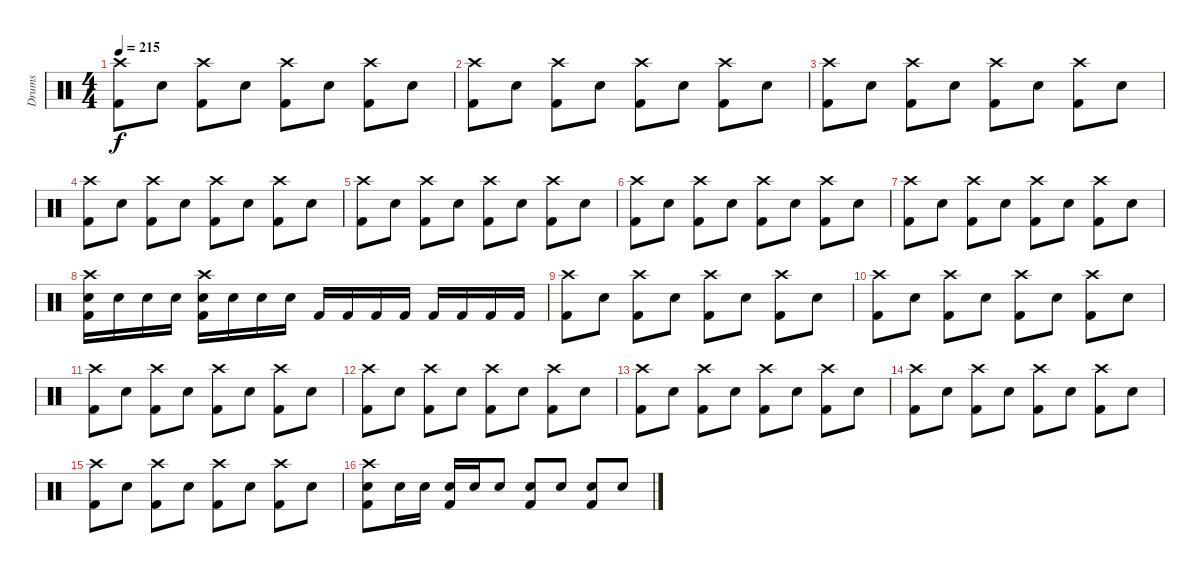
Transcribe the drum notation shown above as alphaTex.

\track ("Drums" "Drums") {instrument percussion}
\staff {score}
\articulation defaults
\ts (4 4)
\tempo 215
\clef neutral
\ks c
("Crash high (hit)" "Kick (hit) 2").8{dy f} "Electric Snare (hit)".8 ("Crash high (hit)" "Kick (hit) 2").8 "Electric Snare (hit)".8 ("Crash high (hit)" "Kick (hit) 2").8 "Electric Snare (hit)".8 ("Crash high (hit)" "Kick (hit) 2").8 "Electric Snare (hit)".8 |
("Crash high (hit)" "Kick (hit) 2").8 "Electric Snare (hit)".8 ("Crash high (hit)" "Kick (hit) 2").8 "Electric Snare (hit)".8 ("Crash high (hit)" "Kick (hit) 2").8 "Electric Snare (hit)".8 ("Crash high (hit)" "Kick (hit) 2").8 "Electric Snare (hit)".8 |
("Crash high (hit)" "Kick (hit) 2").8 "Electric Snare (hit)".8 ("Crash high (hit)" "Kick (hit) 2").8 "Electric Snare (hit)".8 ("Crash high (hit)" "Kick (hit) 2").8 "Electric Snare (hit)".8 ("Crash high (hit)" "Kick (hit) 2").8 "Electric Snare (hit)".8 |
("Crash high (hit)" "Kick (hit) 2").8 "Electric Snare (hit)".8 ("Crash high (hit)" "Kick (hit) 2").8 "Electric Snare (hit)".8 ("Crash high (hit)" "Kick (hit) 2").8 "Electric Snare (hit)".8 ("Crash high (hit)" "Kick (hit) 2").8 "Electric Snare (hit)".8 |
("Crash high (hit)" "Kick (hit) 2").8 "Electric Snare (hit)".8 ("Crash high (hit)" "Kick (hit) 2").8 "Electric Snare (hit)".8 ("Crash high (hit)" "Kick (hit) 2").8 "Electric Snare (hit)".8 ("Crash high (hit)" "Kick (hit) 2").8 "Electric Snare (hit)".8 |
("Crash high (hit)" "Kick (hit) 2").8 "Electric Snare (hit)".8 ("Crash high (hit)" "Kick (hit) 2").8 "Electric Snare (hit)".8 ("Crash high (hit)" "Kick (hit) 2").8 "Electric Snare (hit)".8 ("Crash high (hit)" "Kick (hit) 2").8 "Electric Snare (hit)".8 |
("Crash high (hit)" "Kick (hit) 2").8 "Electric Snare (hit)".8 ("Crash high (hit)" "Kick (hit) 2").8 "Electric Snare (hit)".8 ("Crash high (hit)" "Kick (hit) 2").8 "Electric Snare (hit)".8 ("Crash high (hit)" "Kick (hit) 2").8 "Electric Snare (hit)".8 |
("Crash high (hit)" "Electric Snare (hit)" "Kick (hit) 2").16 "Electric Snare (hit)".16 "Electric Snare (hit)".16 "Electric Snare (hit)".16 ("Crash high (hit)" "Electric Snare (hit)" "Kick (hit) 2").16 "Electric Snare (hit)".16 "Electric Snare (hit)".16 "Electric Snare (hit)".16 "Kick (hit) 2".16 "Kick (hit) 2".16 "Kick (hit) 2".16 "Kick (hit) 2".16 "Kick (hit) 2".16 "Kick (hit) 2".16 "Kick (hit) 2".16 "Kick (hit) 2".16 |
("Crash high (hit)" "Kick (hit) 2").8 "Electric Snare (hit)".8 ("Crash high (hit)" "Kick (hit) 2").8 "Electric Snare (hit)".8 ("Crash high (hit)" "Kick (hit) 2").8 "Electric Snare (hit)".8 ("Crash high (hit)" "Kick (hit) 2").8 "Electric Snare (hit)".8 |
("Crash high (hit)" "Kick (hit) 2").8 "Electric Snare (hit)".8 ("Crash high (hit)" "Kick (hit) 2").8 "Electric Snare (hit)".8 ("Crash high (hit)" "Kick (hit) 2").8 "Electric Snare (hit)".8 ("Crash high (hit)" "Kick (hit) 2").8 "Electric Snare (hit)".8 |
("Crash high (hit)" "Kick (hit) 2").8 "Electric Snare (hit)".8 ("Crash high (hit)" "Kick (hit) 2").8 "Electric Snare (hit)".8 ("Crash high (hit)" "Kick (hit) 2").8 "Electric Snare (hit)".8 ("Crash high (hit)" "Kick (hit) 2").8 "Electric Snare (hit)".8 |
("Crash high (hit)" "Kick (hit) 2").8 "Electric Snare (hit)".8 ("Crash high (hit)" "Kick (hit) 2").8 "Electric Snare (hit)".8 ("Crash high (hit)" "Kick (hit) 2").8 "Electric Snare (hit)".8 ("Crash high (hit)" "Kick (hit) 2").8 "Electric Snare (hit)".8 |
("Crash high (hit)" "Kick (hit) 2").8 "Electric Snare (hit)".8 ("Crash high (hit)" "Kick (hit) 2").8 "Electric Snare (hit)".8 ("Crash high (hit)" "Kick (hit) 2").8 "Electric Snare (hit)".8 ("Crash high (hit)" "Kick (hit) 2").8 "Electric Snare (hit)".8 |
("Crash high (hit)" "Kick (hit) 2").8 "Electric Snare (hit)".8 ("Crash high (hit)" "Kick (hit) 2").8 "Electric Snare (hit)".8 ("Crash high (hit)" "Kick (hit) 2").8 "Electric Snare (hit)".8 ("Crash high (hit)" "Kick (hit) 2").8 "Electric Snare (hit)".8 |
("Crash high (hit)" "Kick (hit) 2").8 "Electric Snare (hit)".8 ("Crash high (hit)" "Kick (hit) 2").8 "Electric Snare (hit)".8 ("Crash high (hit)" "Kick (hit) 2").8 "Electric Snare (hit)".8 ("Crash high (hit)" "Kick (hit) 2").8 "Electric Snare (hit)".8 |
("Crash high (hit)" "Electric Snare (hit)" "Kick (hit) 2").8 "Electric Snare (hit)".16 "Electric Snare (hit)".16 ("Electric Snare (hit)" "Kick (hit) 2").16 "Electric Snare (hit)".16 "Electric Snare (hit)".8 ("Electric Snare (hit)" "Kick (hit) 2").8 "Electric Snare (hit)".8 ("Electric Snare (hit)" "Kick (hit) 2").8 "Electric Snare (hit)".8
